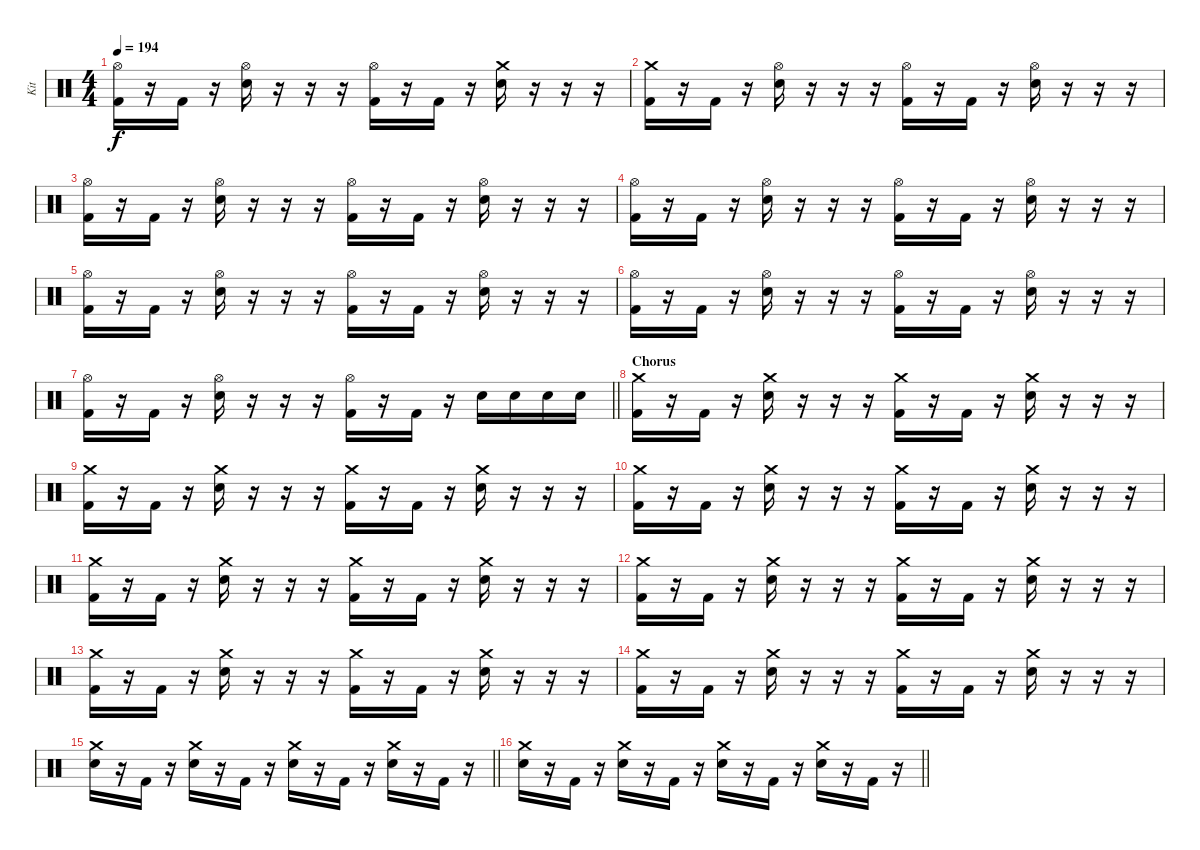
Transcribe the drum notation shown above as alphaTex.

\track ("Kit" "Kit") {instrument percussion}
\staff {score}
\articulation defaults
\ts (4 4)
\tempo 194
\clef neutral
\ks c
("Hi-Hat (open)" "Kick (hit) 2").16{dy f} r.16 "Kick (hit) 2".16 r.16 ("Hi-Hat (open)" "Electric Snare (hit)").16 r.16 r.16 r.16 ("Hi-Hat (open)" "Kick (hit) 2").16 r.16 "Kick (hit) 2".16 r.16 ("Crash medium (hit)" "Electric Snare (hit)").16 r.16 r.16 r.16 |
("Crash medium (hit)" "Kick (hit) 2").16 r.16 "Kick (hit) 2".16 r.16 ("Hi-Hat (open)" "Electric Snare (hit)").16 r.16 r.16 r.16 ("Hi-Hat (open)" "Kick (hit) 2").16 r.16 "Kick (hit) 2".16 r.16 ("Hi-Hat (open)" "Electric Snare (hit)").16 r.16 r.16 r.16 |
("Hi-Hat (open)" "Kick (hit) 2").16 r.16 "Kick (hit) 2".16 r.16 ("Hi-Hat (open)" "Electric Snare (hit)").16 r.16 r.16 r.16 ("Hi-Hat (open)" "Kick (hit) 2").16 r.16 "Kick (hit) 2".16 r.16 ("Hi-Hat (open)" "Electric Snare (hit)").16 r.16 r.16 r.16 |
("Hi-Hat (open)" "Kick (hit) 2").16 r.16 "Kick (hit) 2".16 r.16 ("Hi-Hat (open)" "Electric Snare (hit)").16 r.16 r.16 r.16 ("Hi-Hat (open)" "Kick (hit) 2").16 r.16 "Kick (hit) 2".16 r.16 ("Hi-Hat (open)" "Electric Snare (hit)").16 r.16 r.16 r.16 |
("Hi-Hat (open)" "Kick (hit) 2").16 r.16 "Kick (hit) 2".16 r.16 ("Hi-Hat (open)" "Electric Snare (hit)").16 r.16 r.16 r.16 ("Hi-Hat (open)" "Kick (hit) 2").16 r.16 "Kick (hit) 2".16 r.16 ("Hi-Hat (open)" "Electric Snare (hit)").16 r.16 r.16 r.16 |
("Hi-Hat (open)" "Kick (hit) 2").16 r.16 "Kick (hit) 2".16 r.16 ("Hi-Hat (open)" "Electric Snare (hit)").16 r.16 r.16 r.16 ("Hi-Hat (open)" "Kick (hit) 2").16 r.16 "Kick (hit) 2".16 r.16 ("Hi-Hat (open)" "Electric Snare (hit)").16 r.16 r.16 r.16 |
\barLineRight lightlight
("Hi-Hat (open)" "Kick (hit) 2").16 r.16 "Kick (hit) 2".16 r.16 ("Hi-Hat (open)" "Electric Snare (hit)").16 r.16 r.16 r.16 ("Hi-Hat (open)" "Kick (hit) 2").16 r.16 "Kick (hit) 2".16 r.16 "Electric Snare (hit)".16 "Electric Snare (hit)".16 "Electric Snare (hit)".16 "Electric Snare (hit)".16 |
\section ("" "Chorus")
("Crash medium (hit)" "Kick (hit) 2").16 r.16 "Kick (hit) 2".16 r.16 ("Crash medium (hit)" "Electric Snare (hit)").16 r.16 r.16 r.16 ("Crash medium (hit)" "Kick (hit) 2").16 r.16 "Kick (hit) 2".16 r.16 ("Crash medium (hit)" "Electric Snare (hit)").16 r.16 r.16 r.16 |
("Crash medium (hit)" "Kick (hit) 2").16 r.16 "Kick (hit) 2".16 r.16 ("Crash medium (hit)" "Electric Snare (hit)").16 r.16 r.16 r.16 ("Crash medium (hit)" "Kick (hit) 2").16 r.16 "Kick (hit) 2".16 r.16 ("Crash medium (hit)" "Electric Snare (hit)").16 r.16 r.16 r.16 |
("Crash medium (hit)" "Kick (hit) 2").16 r.16 "Kick (hit) 2".16 r.16 ("Crash medium (hit)" "Electric Snare (hit)").16 r.16 r.16 r.16 ("Crash medium (hit)" "Kick (hit) 2").16 r.16 "Kick (hit) 2".16 r.16 ("Crash medium (hit)" "Electric Snare (hit)").16 r.16 r.16 r.16 |
("Crash medium (hit)" "Kick (hit) 2").16 r.16 "Kick (hit) 2".16 r.16 ("Crash medium (hit)" "Electric Snare (hit)").16 r.16 r.16 r.16 ("Crash medium (hit)" "Kick (hit) 2").16 r.16 "Kick (hit) 2".16 r.16 ("Crash medium (hit)" "Electric Snare (hit)").16 r.16 r.16 r.16 |
("Crash medium (hit)" "Kick (hit) 2").16 r.16 "Kick (hit) 2".16 r.16 ("Crash medium (hit)" "Electric Snare (hit)").16 r.16 r.16 r.16 ("Crash medium (hit)" "Kick (hit) 2").16 r.16 "Kick (hit) 2".16 r.16 ("Crash medium (hit)" "Electric Snare (hit)").16 r.16 r.16 r.16 |
("Crash medium (hit)" "Kick (hit) 2").16 r.16 "Kick (hit) 2".16 r.16 ("Crash medium (hit)" "Electric Snare (hit)").16 r.16 r.16 r.16 ("Crash medium (hit)" "Kick (hit) 2").16 r.16 "Kick (hit) 2".16 r.16 ("Crash medium (hit)" "Electric Snare (hit)").16 r.16 r.16 r.16 |
("Crash medium (hit)" "Kick (hit) 2").16 r.16 "Kick (hit) 2".16 r.16 ("Crash medium (hit)" "Electric Snare (hit)").16 r.16 r.16 r.16 ("Crash medium (hit)" "Kick (hit) 2").16 r.16 "Kick (hit) 2".16 r.16 ("Crash medium (hit)" "Electric Snare (hit)").16 r.16 r.16 r.16 |
\barLineRight lightlight
("Crash medium (hit)" "Electric Snare (hit)").16 r.16 "Kick (hit) 2".16 r.16 ("Crash medium (hit)" "Electric Snare (hit)").16 r.16 "Kick (hit) 2".16 r.16 ("Crash medium (hit)" "Electric Snare (hit)").16 r.16 "Kick (hit) 2".16 r.16 ("Crash medium (hit)" "Electric Snare (hit)").16 r.16 "Kick (hit) 2".16 r.16 |
\barLineRight lightlight
("Crash medium (hit)" "Electric Snare (hit)").16 r.16 "Kick (hit) 2".16 r.16 ("Crash medium (hit)" "Electric Snare (hit)").16 r.16 "Kick (hit) 2".16 r.16 ("Crash medium (hit)" "Electric Snare (hit)").16 r.16 "Kick (hit) 2".16 r.16 ("Crash medium (hit)" "Electric Snare (hit)").16 r.16 "Kick (hit) 2".16 r.16
